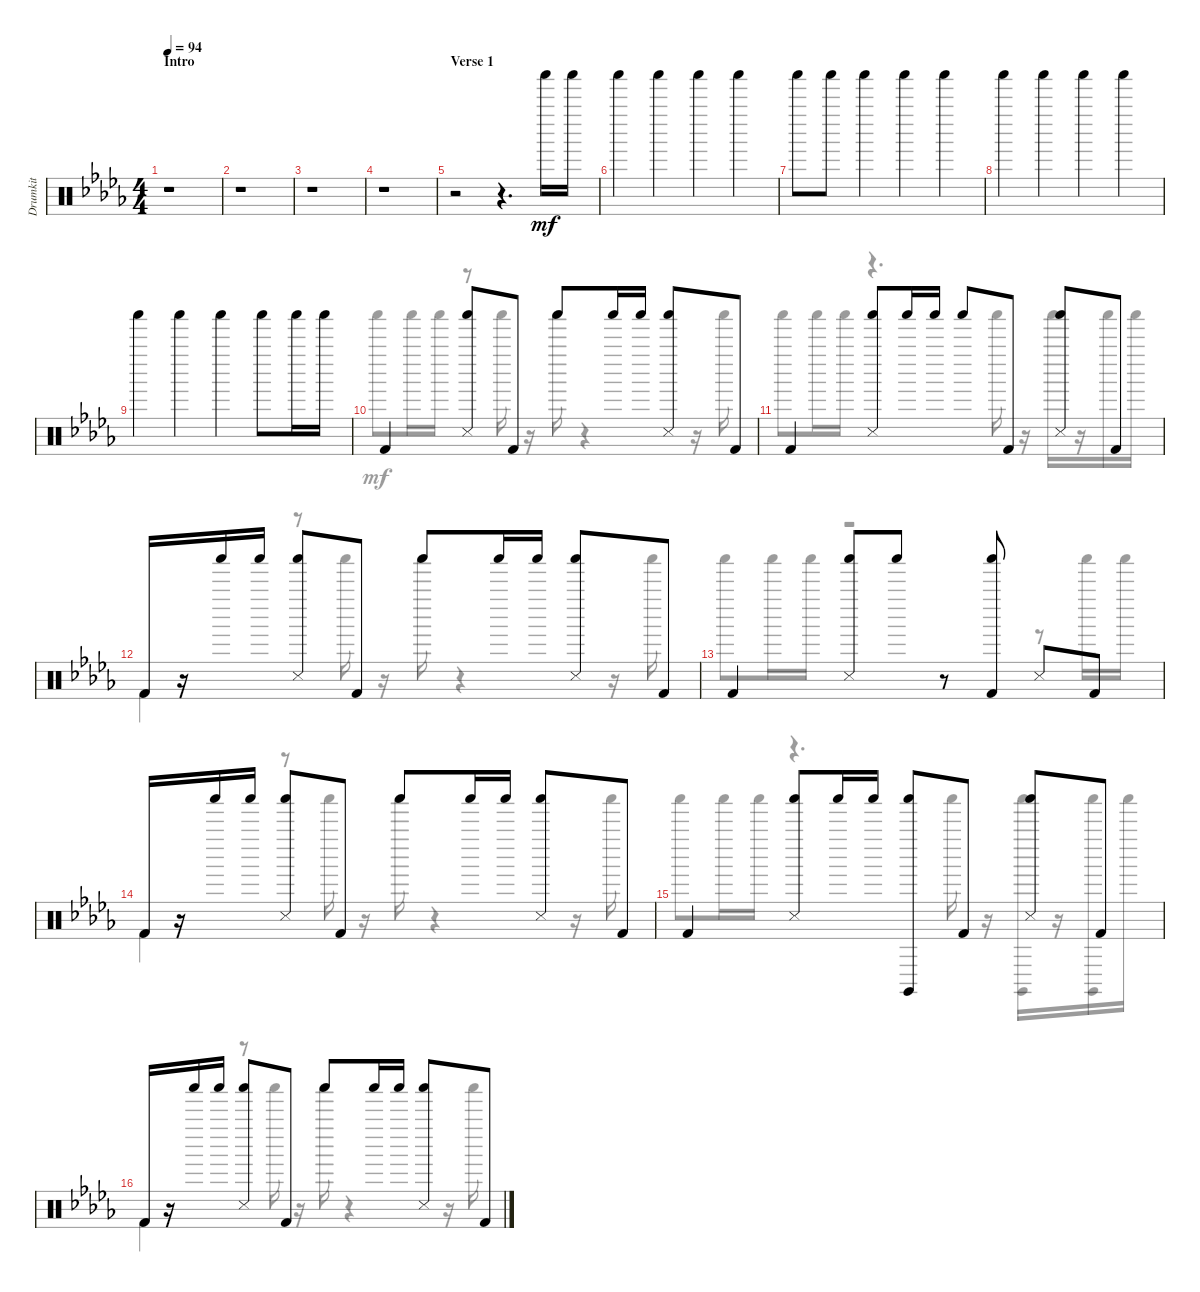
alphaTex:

\track ("Drumkit" "Drumkit") {instrument percussion}
\staff {score}
\articulation defaults
\voice
\ts (4 4)
\section ("" "Intro")
\tempo 94
\clef neutral
\ks bbminor
r.1{dy mf} |
r.1 |
r.1 |
r.1 |
\section ("" "Verse 1")
r.2 r.4{d} "Shaker (hit)".16 "Shaker (hit)".16 |
"Shaker (hit)".4 "Shaker (hit)".4 "Shaker (hit)".4 "Shaker (hit)".4 |
"Shaker (hit)".8 "Shaker (hit)".8 "Shaker (hit)".4 "Shaker (hit)".4 "Shaker (hit)".4 |
"Shaker (hit)".4 "Shaker (hit)".4 "Shaker (hit)".4 "Shaker (hit)".4 |
"Shaker (hit)".4 "Shaker (hit)".4 "Shaker (hit)".4 "Shaker (hit)".8 "Shaker (hit)".16 "Shaker (hit)".16 |
"Kick (hit) 2".4 ("Snare (side stick) 3" "Shaker (hit)").8 "Kick (hit) 2".8 "Shaker (hit)".8 "Shaker (hit)".16 "Shaker (hit)".16 ("Snare (side stick) 3" "Shaker (hit)").8 "Kick (hit) 2".8 |
"Kick (hit) 2".4 ("Shaker (hit)" "Snare (side stick) 3").8 "Shaker (hit)".16 "Shaker (hit)".16 "Shaker (hit)".8 "Kick (hit) 2".8 ("Shaker (hit)" "Snare (side stick) 3").8 "Kick (hit) 2".8 |
"Kick (hit) 2".16 r.16 "Shaker (hit)".16 "Shaker (hit)".16 ("Shaker (hit)" "Snare (side stick) 3").8 "Kick (hit) 2".8 "Shaker (hit)".8 "Shaker (hit)".16 "Shaker (hit)".16 ("Shaker (hit)" "Snare (side stick) 3").8 "Kick (hit) 2".8 |
"Kick (hit) 2".4 ("Shaker (hit)" "Snare (side stick) 3").8 "Shaker (hit)".8 r.8 ("Shaker (hit)" "Kick (hit) 2").8 "Snare (side stick) 3".8 "Kick (hit) 2".8 |
"Kick (hit) 2".16 r.16 "Shaker (hit)".16 "Shaker (hit)".16 ("Shaker (hit)" "Snare (side stick) 3").8 "Kick (hit) 2".8 "Shaker (hit)".8 "Shaker (hit)".16 "Shaker (hit)".16 ("Snare (side stick) 3" "Shaker (hit)").8 "Kick (hit) 2".8 |
"Kick (hit) 2".4 ("Snare (side stick) 3" "Shaker (hit)").8 "Shaker (hit)".16 "Shaker (hit)".16 ("Claves (hit)" "Shaker (hit)").8 "Kick (hit) 2".8 ("Snare (side stick) 3" "Shaker (hit)").8 "Kick (hit) 2".8 |
"Kick (hit) 2".16 r.16 "Shaker (hit)".16 "Shaker (hit)".16 ("Shaker (hit)" "Snare (side stick) 3").8 "Kick (hit) 2".8 "Shaker (hit)".8 "Shaker (hit)".16 "Shaker (hit)".16 ("Shaker (hit)" "Snare (side stick) 3").8 "Kick (hit) 2".8
\voice
\clef neutral
\ottava regular
\simile none
\ks bbminor
|
|
|
|
|
|
|
|
|
"Shaker (hit)".8 "Shaker (hit)".16 "Shaker (hit)".16 r.8 "Shaker (hit)".16 r.16 "Shaker (hit)".16 r.4 r.16 "Shaker (hit)".16 |
"Shaker (hit)".8 "Shaker (hit)".16 "Shaker (hit)".16 r.4{d} "Shaker (hit)".16 r.16 "Shaker (hit)".16 r.16 "Shaker (hit)".16 "Shaker (hit)".16 |
"Kick (hit) 2".4 r.8 "Shaker (hit)".16 r.16 "Shaker (hit)".16 r.4 r.16 "Shaker (hit)".16 |
"Shaker (hit)".8 "Shaker (hit)".16 "Shaker (hit)".16 r.2 r.8 "Shaker (hit)".16 "Shaker (hit)".16 |
"Kick (hit) 2".4 r.8 "Shaker (hit)".16 r.16 "Shaker (hit)".16 r.4 r.16 "Shaker (hit)".16 |
"Shaker (hit)".8 "Shaker (hit)".16 "Shaker (hit)".16 r.4{d} "Shaker (hit)".16 r.16 ("Shaker (hit)" "Claves (hit)").16 r.16 ("Shaker (hit)" "Claves (hit)").16 "Shaker (hit)".16 |
"Kick (hit) 2".4 r.8 "Shaker (hit)".16 r.16 "Shaker (hit)".16 r.4 r.16 "Shaker (hit)".16
